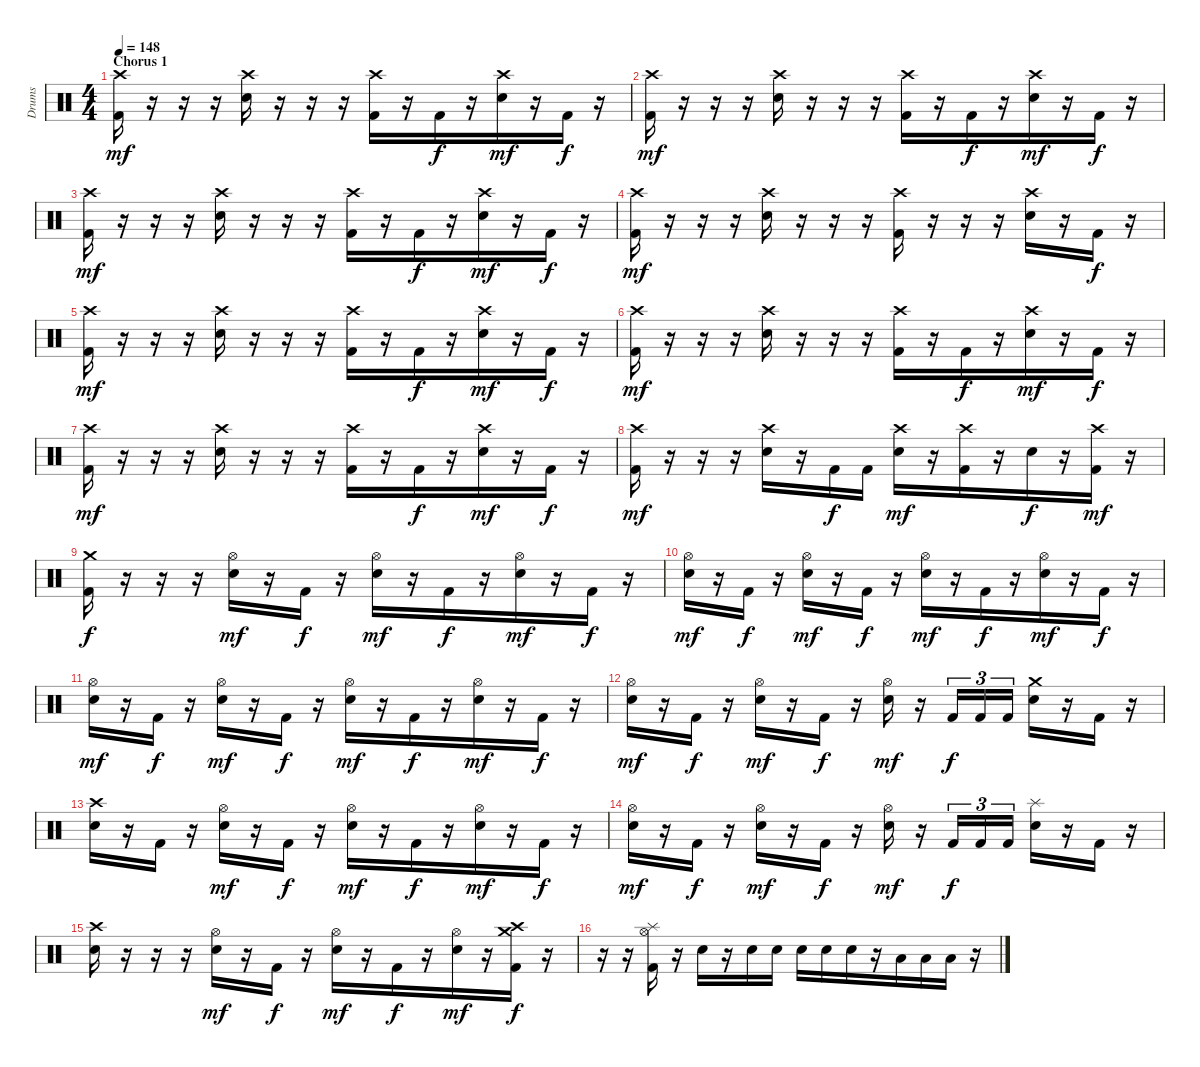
\track ("Drums" "Drums") {instrument percussion}
\staff {score}
\articulation defaults
\ts (4 4)
\section ("" "Chorus 1")
\tempo 148
\clef neutral
\ks c
("Crash high (hit)" "Kick (hit) 2").16{dy mf volume 13} r.16 r.16 r.16 ("Crash high (hit)" "Snare (hit) 2").16 r.16{beam merge} r.16 r.16 ("Crash high (hit)" "Kick (hit) 2").16 r.16{beam merge} "Kick (hit) 2".16{dy f beam merge} r.16 ("Crash high (hit)" "Snare (hit) 2").16{dy mf beam merge} r.16 "Kick (hit) 2".16{dy f} r.16 |
("Crash high (hit)" "Kick (hit) 2").16{dy mf} r.16 r.16 r.16 ("Crash high (hit)" "Snare (hit) 2").16 r.16{beam merge} r.16 r.16 ("Crash high (hit)" "Kick (hit) 2").16 r.16{beam merge} "Kick (hit) 2".16{dy f beam merge} r.16 ("Crash high (hit)" "Snare (hit) 2").16{dy mf beam merge} r.16 "Kick (hit) 2".16{dy f} r.16 |
("Crash high (hit)" "Kick (hit) 2").16{dy mf} r.16 r.16 r.16 ("Crash high (hit)" "Snare (hit) 2").16 r.16{beam merge} r.16 r.16 ("Crash high (hit)" "Kick (hit) 2").16 r.16{beam merge} "Kick (hit) 2".16{dy f beam merge} r.16 ("Crash high (hit)" "Snare (hit) 2").16{dy mf beam merge} r.16 "Kick (hit) 2".16{dy f} r.16 |
("Crash high (hit)" "Kick (hit) 2").16{dy mf} r.16 r.16 r.16 ("Crash high (hit)" "Snare (hit) 2").16 r.16{beam merge} r.16 r.16 ("Crash high (hit)" "Kick (hit) 2").16 r.16{beam merge} r.16{beam merge} r.16 ("Crash high (hit)" "Snare (hit) 2").16{beam merge} r.16 "Kick (hit) 2".16{dy f} r.16 |
("Crash high (hit)" "Kick (hit) 2").16{dy mf} r.16 r.16 r.16 ("Crash high (hit)" "Snare (hit) 2").16 r.16{beam merge} r.16 r.16 ("Crash high (hit)" "Kick (hit) 2").16 r.16{beam merge} "Kick (hit) 2".16{dy f beam merge} r.16 ("Crash high (hit)" "Snare (hit) 2").16{dy mf beam merge} r.16 "Kick (hit) 2".16{dy f} r.16 |
("Crash high (hit)" "Kick (hit) 2").16{dy mf} r.16 r.16 r.16 ("Crash high (hit)" "Snare (hit) 2").16 r.16{beam merge} r.16 r.16 ("Crash high (hit)" "Kick (hit) 2").16 r.16{beam merge} "Kick (hit) 2".16{dy f beam merge} r.16 ("Crash high (hit)" "Snare (hit) 2").16{dy mf beam merge} r.16 "Kick (hit) 2".16{dy f} r.16 |
("Crash high (hit)" "Kick (hit) 2").16{dy mf} r.16 r.16 r.16 ("Crash high (hit)" "Snare (hit) 2").16 r.16{beam merge} r.16 r.16 ("Crash high (hit)" "Kick (hit) 2").16 r.16{beam merge} "Kick (hit) 2".16{dy f beam merge} r.16 ("Crash high (hit)" "Snare (hit) 2").16{dy mf beam merge} r.16 "Kick (hit) 2".16{dy f} r.16 |
("Crash high (hit)" "Kick (hit) 2").16{dy mf} r.16 r.16 r.16 ("Crash high (hit)" "Snare (hit) 2").16 r.16{beam merge} "Kick (hit) 2".16{dy f} "Kick (hit) 2".16 ("Crash high (hit)" "Snare (hit) 2").16{dy mf} r.16{beam merge} ("Crash high (hit)" "Kick (hit) 2").16{beam merge} r.16 "Snare (hit) 2".16{dy f beam merge} r.16 ("Crash high (hit)" "Kick (hit) 2").16{dy mf} r.16 |
("Crash medium (hit)" "Kick (hit) 2").16{dy f} r.16 r.16 r.16 ("Hi-Hat (open)" "Snare (hit) 2").16{dy mf} r.16{beam merge} "Kick (hit) 2".16{dy f} r.16 ("Hi-Hat (open)" "Snare (hit) 2").16{dy mf} r.16{beam merge} "Kick (hit) 2".16{dy f beam merge} r.16 ("Hi-Hat (open)" "Snare (hit) 2").16{dy mf beam merge} r.16 "Kick (hit) 2".16{dy f} r.16 |
("Hi-Hat (open)" "Snare (hit) 2").16{dy mf} r.16 "Kick (hit) 2".16{dy f} r.16 ("Hi-Hat (open)" "Snare (hit) 2").16{dy mf} r.16{beam merge} "Kick (hit) 2".16{dy f} r.16 ("Hi-Hat (open)" "Snare (hit) 2").16{dy mf} r.16{beam merge} "Kick (hit) 2".16{dy f beam merge} r.16 ("Hi-Hat (open)" "Snare (hit) 2").16{dy mf beam merge} r.16 "Kick (hit) 2".16{dy f} r.16 |
("Hi-Hat (open)" "Snare (hit) 2").16{dy mf} r.16 "Kick (hit) 2".16{dy f} r.16 ("Hi-Hat (open)" "Snare (hit) 2").16{dy mf} r.16{beam merge} "Kick (hit) 2".16{dy f} r.16 ("Hi-Hat (open)" "Snare (hit) 2").16{dy mf} r.16{beam merge} "Kick (hit) 2".16{dy f beam merge} r.16 ("Hi-Hat (open)" "Snare (hit) 2").16{dy mf beam merge} r.16 "Kick (hit) 2".16{dy f} r.16 |
("Hi-Hat (open)" "Snare (hit) 2").16{dy mf} r.16 "Kick (hit) 2".16{dy f} r.16 ("Hi-Hat (open)" "Snare (hit) 2").16{dy mf} r.16{beam merge} "Kick (hit) 2".16{dy f} r.16 ("Hi-Hat (open)" "Snare (hit) 2").16{dy mf} r.16 "Kick (hit) 2".16{tu (3 2) dy f beam merge} "Kick (hit) 2".16{tu (3 2) beam merge} "Kick (hit) 2".16{tu (3 2)} ("Crash medium (hit)" "Snare (hit) 2").16{beam merge} r.16 "Kick (hit) 2".16 r.16 |
("Crash high (hit)" "Snare (hit) 2").16 r.16 "Kick (hit) 2".16 r.16 ("Hi-Hat (open)" "Snare (hit) 2").16{dy mf} r.16{beam merge} "Kick (hit) 2".16{dy f} r.16 ("Hi-Hat (open)" "Snare (hit) 2").16{dy mf} r.16{beam merge} "Kick (hit) 2".16{dy f beam merge} r.16 ("Hi-Hat (open)" "Snare (hit) 2").16{dy mf beam merge} r.16 "Kick (hit) 2".16{dy f} r.16 |
("Hi-Hat (open)" "Snare (hit) 2").16{dy mf} r.16 "Kick (hit) 2".16{dy f} r.16 ("Hi-Hat (open)" "Snare (hit) 2").16{dy mf} r.16{beam merge} "Kick (hit) 2".16{dy f} r.16 ("Hi-Hat (open)" "Snare (hit) 2").16{dy mf} r.16 "Kick (hit) 2".16{tu (3 2) dy f beam merge} "Kick (hit) 2".16{tu (3 2) beam merge} "Kick (hit) 2".16{tu (3 2)} ("Splash (hit)" "Snare (hit) 2").16{beam merge} r.16 "Kick (hit) 2".16 r.16 |
("Crash high (hit)" "Snare (hit) 2").16 r.16 r.16 r.16 ("Hi-Hat (open)" "Snare (hit) 2").16{dy mf} r.16{beam merge} "Kick (hit) 2".16{dy f} r.16 ("Hi-Hat (open)" "Snare (hit) 2").16{dy mf} r.16{beam merge} "Kick (hit) 2".16{dy f beam merge} r.16 ("Hi-Hat (open)" "Snare (hit) 2").16{dy mf beam merge} r.16 ("Crash medium (hit)" "Crash high (hit)" "Kick (hit) 2").16{dy f} r.16 |
r.16 r.16 ("Splash (hit)" "Hi-Hat (open)" "Kick (hit) 2").16 r.16 "Snare (hit) 2".16 r.16{beam merge} "Snare (hit) 2".16 "Snare (hit) 2".16 "Snare (hit) 2".16 "Snare (hit) 2".16 "Snare (hit) 2".16{beam merge} r.16 "Low Tom (hit)".16 "Low Tom (hit)".16 "Low Tom (hit)".16 r.16
